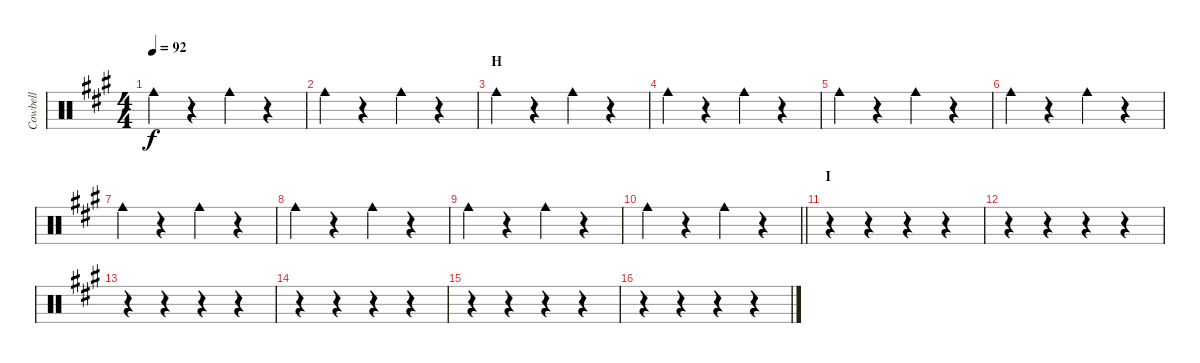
\track ("Cowbell" "Cowbell") {instrument percussion}
\staff {score}
\articulation defaults
\ts (4 4)
\tempo 92
\clef neutral
\ks a "Cowbell medium (hit)".4{dy f}
r.4 "Cowbell medium (hit)".4 r.4 |
"Cowbell medium (hit)".4 r.4 "Cowbell medium (hit)".4 r.4 |
\section ("" "H")
"Cowbell medium (hit)".4 r.4 "Cowbell medium (hit)".4 r.4 |
"Cowbell medium (hit)".4 r.4 "Cowbell medium (hit)".4 r.4 |
"Cowbell medium (hit)".4 r.4 "Cowbell medium (hit)".4 r.4 |
"Cowbell medium (hit)".4 r.4 "Cowbell medium (hit)".4 r.4 |
"Cowbell medium (hit)".4 r.4 "Cowbell medium (hit)".4 r.4 |
"Cowbell medium (hit)".4 r.4 "Cowbell medium (hit)".4 r.4 |
"Cowbell medium (hit)".4 r.4 "Cowbell medium (hit)".4 r.4 |
\barLineRight lightlight "Cowbell medium (hit)".4
r.4 "Cowbell medium (hit)".4 r.4 |
\section ("" "I")
r.4 r.4 r.4 r.4 |
r.4 r.4 r.4 r.4 |
r.4 r.4 r.4 r.4 |
r.4 r.4 r.4 r.4 |
r.4 r.4 r.4 r.4 |
r.4 r.4 r.4 r.4
